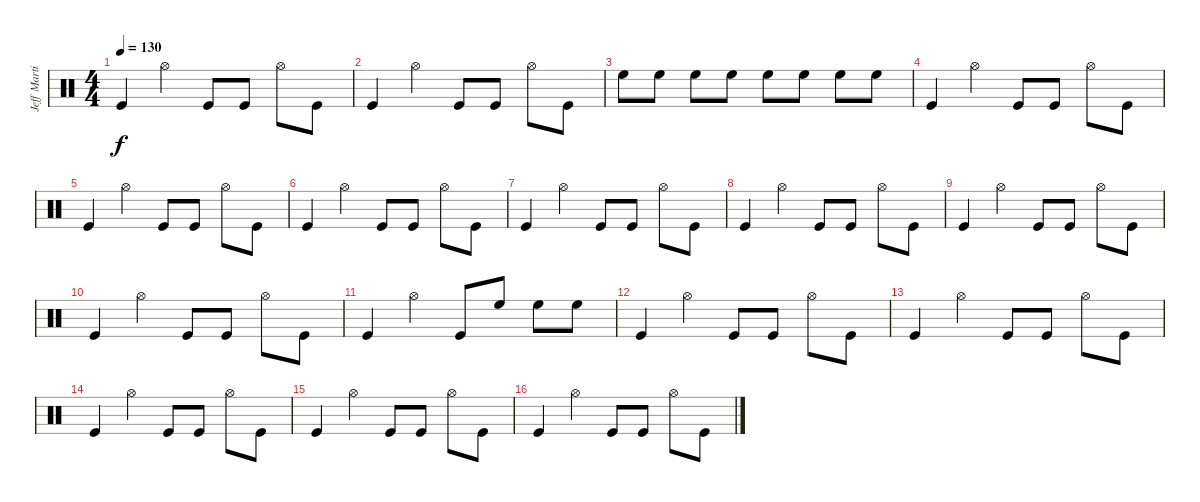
\track ("Jeff Martin" "Jeff Marti") {instrument percussion}
\staff {score}
\articulation defaults
\ts (4 4)
\tempo 130
\clef neutral
\ks c "Kick (hit)".4{dy f} "Hi-Hat (open)".4 "Kick (hit)".8 "Kick (hit)".8 "Hi-Hat (open)".8 "Kick (hit)".8
|
"Kick (hit)".4 "Hi-Hat (open)".4 "Kick (hit)".8 "Kick (hit)".8 "Hi-Hat (open)".8 "Kick (hit)".8 |
"High Floor Tom (hit)".8 "High Floor Tom (hit)".8 "High Floor Tom (hit)".8 "High Floor Tom (hit)".8 "High Floor Tom (hit)".8 "High Floor Tom (hit)".8 "High Floor Tom (hit)".8 "High Floor Tom (hit)".8 |
"Kick (hit)".4 "Hi-Hat (open)".4 "Kick (hit)".8 "Kick (hit)".8 "Hi-Hat (open)".8 "Kick (hit)".8 |
"Kick (hit)".4 "Hi-Hat (open)".4 "Kick (hit)".8 "Kick (hit)".8 "Hi-Hat (open)".8 "Kick (hit)".8 |
"Kick (hit)".4 "Hi-Hat (open)".4 "Kick (hit)".8 "Kick (hit)".8 "Hi-Hat (open)".8 "Kick (hit)".8 |
"Kick (hit)".4 "Hi-Hat (open)".4 "Kick (hit)".8 "Kick (hit)".8 "Hi-Hat (open)".8 "Kick (hit)".8 |
"Kick (hit)".4 "Hi-Hat (open)".4 "Kick (hit)".8 "Kick (hit)".8 "Hi-Hat (open)".8 "Kick (hit)".8 |
"Kick (hit)".4 "Hi-Hat (open)".4 "Kick (hit)".8 "Kick (hit)".8 "Hi-Hat (open)".8 "Kick (hit)".8 |
"Kick (hit)".4 "Hi-Hat (open)".4 "Kick (hit)".8 "Kick (hit)".8 "Hi-Hat (open)".8 "Kick (hit)".8 |
"Kick (hit)".4 "Hi-Hat (open)".4 "Kick (hit)".8 "High Floor Tom (hit)".8 "High Floor Tom (hit)".8 "High Floor Tom (hit)".8 |
"Kick (hit)".4 "Hi-Hat (open)".4 "Kick (hit)".8 "Kick (hit)".8 "Hi-Hat (open)".8 "Kick (hit)".8 |
"Kick (hit)".4 "Hi-Hat (open)".4 "Kick (hit)".8 "Kick (hit)".8 "Hi-Hat (open)".8 "Kick (hit)".8 |
"Kick (hit)".4 "Hi-Hat (open)".4 "Kick (hit)".8 "Kick (hit)".8 "Hi-Hat (open)".8 "Kick (hit)".8 |
"Kick (hit)".4 "Hi-Hat (open)".4 "Kick (hit)".8 "Kick (hit)".8 "Hi-Hat (open)".8 "Kick (hit)".8 |
"Kick (hit)".4 "Hi-Hat (open)".4 "Kick (hit)".8 "Kick (hit)".8 "Hi-Hat (open)".8 "Kick (hit)".8
